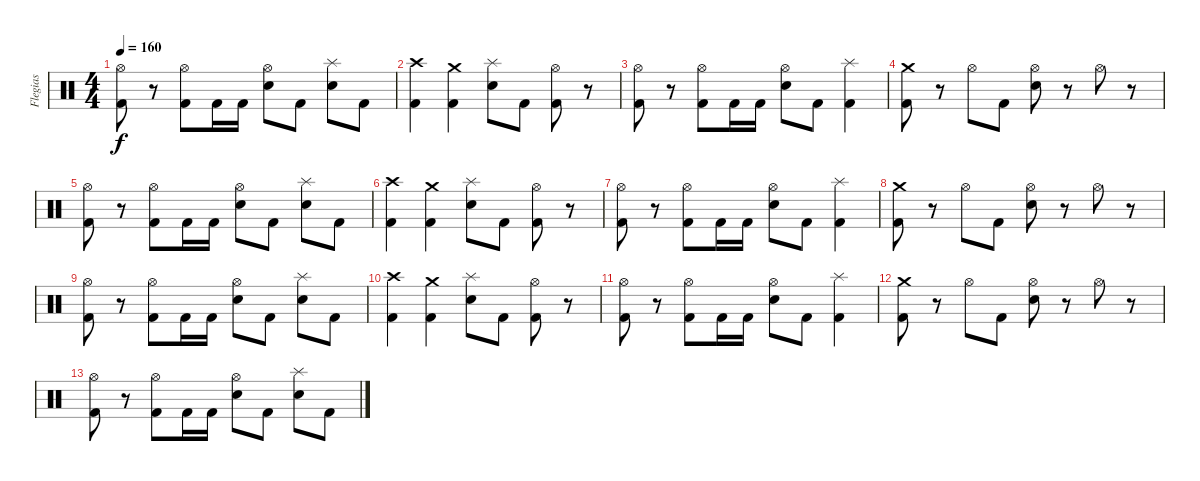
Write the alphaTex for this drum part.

\track ("Flegias" "Flegias") {instrument percussion}
\staff {score}
\articulation defaults
\ts (4 4)
\tempo 160
\clef neutral
\ks c
("Hi-Hat (open)" "Kick (hit) 2").8{dy f} r.8 ("Hi-Hat (open)" "Kick (hit) 2").8 "Kick (hit) 2".16 "Kick (hit) 2".16 ("Hi-Hat (open)" "Snare (hit) 2").8 "Kick (hit) 2".8 ("Splash (hit)" "Snare (hit) 2").8 "Kick (hit) 2".8 |
("Crash high (hit)" "Kick (hit) 2").4 ("Crash medium (hit)" "Kick (hit) 2").4 ("Splash (hit)" "Snare (hit) 2").8 "Kick (hit) 2".8 ("Hi-Hat (open)" "Kick (hit) 2").8 r.8 |
("Hi-Hat (open)" "Kick (hit) 2").8 r.8 ("Hi-Hat (open)" "Kick (hit) 2").8 "Kick (hit) 2".16 "Kick (hit) 2".16 ("Hi-Hat (open)" "Snare (hit) 2").8 "Kick (hit) 2".8 ("Splash (hit)" "Kick (hit) 2").4 |
("Crash medium (hit)" "Kick (hit) 2").8 r.8 "Hi-Hat (open)".8 "Kick (hit) 2".8 ("Hi-Hat (open)" "Snare (hit) 2").8 r.8 "Hi-Hat (open)".8 r.8 |
("Hi-Hat (open)" "Kick (hit) 2").8 r.8 ("Hi-Hat (open)" "Kick (hit) 2").8 "Kick (hit) 2".16 "Kick (hit) 2".16 ("Hi-Hat (open)" "Snare (hit) 2").8 "Kick (hit) 2".8 ("Splash (hit)" "Snare (hit) 2").8 "Kick (hit) 2".8 |
("Crash high (hit)" "Kick (hit) 2").4 ("Crash medium (hit)" "Kick (hit) 2").4 ("Splash (hit)" "Snare (hit) 2").8 "Kick (hit) 2".8 ("Hi-Hat (open)" "Kick (hit) 2").8 r.8 |
("Hi-Hat (open)" "Kick (hit) 2").8 r.8 ("Hi-Hat (open)" "Kick (hit) 2").8 "Kick (hit) 2".16 "Kick (hit) 2".16 ("Hi-Hat (open)" "Snare (hit) 2").8 "Kick (hit) 2".8 ("Splash (hit)" "Kick (hit) 2").4 |
("Crash medium (hit)" "Kick (hit) 2").8 r.8 "Hi-Hat (open)".8 "Kick (hit) 2".8 ("Hi-Hat (open)" "Snare (hit) 2").8 r.8 "Hi-Hat (open)".8 r.8 |
("Hi-Hat (open)" "Kick (hit) 2").8 r.8 ("Hi-Hat (open)" "Kick (hit) 2").8 "Kick (hit) 2".16 "Kick (hit) 2".16 ("Hi-Hat (open)" "Snare (hit) 2").8 "Kick (hit) 2".8 ("Splash (hit)" "Snare (hit) 2").8 "Kick (hit) 2".8 |
("Crash high (hit)" "Kick (hit) 2").4 ("Crash medium (hit)" "Kick (hit) 2").4 ("Splash (hit)" "Snare (hit) 2").8 "Kick (hit) 2".8 ("Hi-Hat (open)" "Kick (hit) 2").8 r.8 |
("Hi-Hat (open)" "Kick (hit) 2").8 r.8 ("Hi-Hat (open)" "Kick (hit) 2").8 "Kick (hit) 2".16 "Kick (hit) 2".16 ("Hi-Hat (open)" "Snare (hit) 2").8 "Kick (hit) 2".8 ("Splash (hit)" "Kick (hit) 2").4 |
("Crash medium (hit)" "Kick (hit) 2").8 r.8 "Hi-Hat (open)".8 "Kick (hit) 2".8 ("Hi-Hat (open)" "Snare (hit) 2").8 r.8 "Hi-Hat (open)".8 r.8 |
("Hi-Hat (open)" "Kick (hit) 2").8 r.8 ("Hi-Hat (open)" "Kick (hit) 2").8 "Kick (hit) 2".16 "Kick (hit) 2".16 ("Hi-Hat (open)" "Snare (hit) 2").8 "Kick (hit) 2".8 ("Splash (hit)" "Snare (hit) 2").8 "Kick (hit) 2".8
